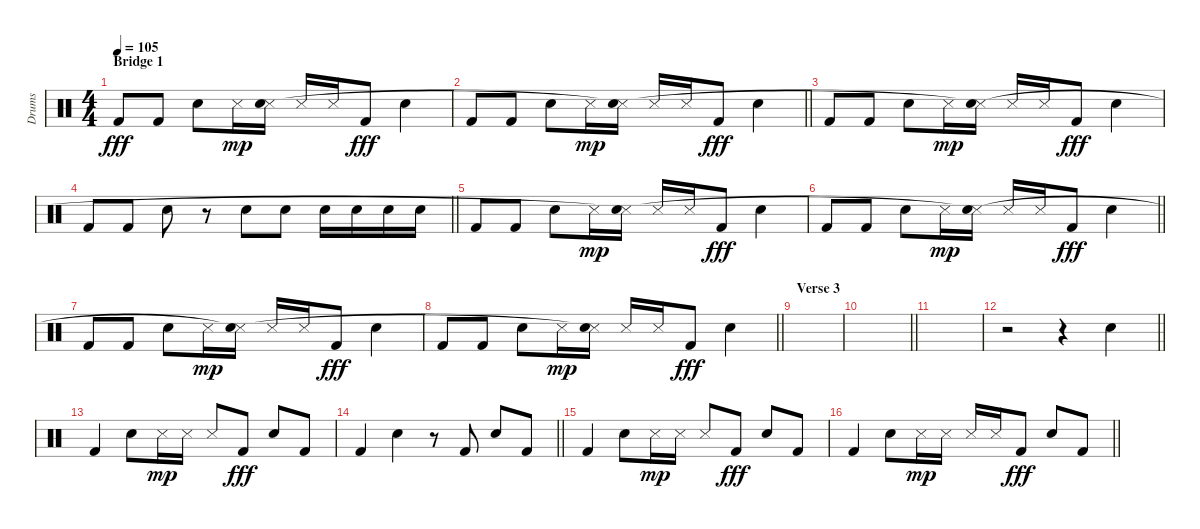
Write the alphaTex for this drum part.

\track ("Drums" "Drums") {instrument percussion}
\staff {score}
\articulation defaults
\ts (4 4)
\section ("" "Bridge 1")
\tempo 105
\clef neutral
\ks aminor "Kick (hit) 2".8{dy fff} "Kick (hit) 2".8 "Electric Snare (hit)".8 "Snare (side stick) 3".16{dy mp}
("Metronome (hit)" "Snare (hit)").16 "Snare (side stick) 3".16 "Metronome (hit)".16 "Kick (hit) 2".8{dy fff} "Electric Snare (hit)".4 |
\barLineRight lightlight "Kick (hit) 2".8 "Kick (hit) 2".8 "Electric Snare (hit)".8 "Snare (side stick) 3".16{dy mp}
("Metronome (hit)" "Snare (hit)"{t}).16 "Snare (side stick) 3".16 "Metronome (hit)".16 "Kick (hit) 2".8{dy fff} "Electric Snare (hit)".4 |
"Kick (hit) 2".8 "Kick (hit) 2".8 "Electric Snare (hit)".8 "Snare (side stick) 3".16{dy mp} ("Metronome (hit)" "Snare (hit)"{t}).16 "Snare (side stick) 3".16 "Metronome (hit)".16 "Kick (hit) 2".8{dy fff} "Electric Snare (hit)".4 |
\barLineRight lightlight "Kick (hit) 2".8 "Kick (hit) 2".8 "Electric Snare (hit)".8
r.8 "Electric Snare (hit)".8 "Electric Snare (hit)".8 "Electric Snare (hit)".16 "Electric Snare (hit)".16 "Electric Snare (hit)".16 "Electric Snare (hit)".16 |
"Kick (hit) 2".8 "Kick (hit) 2".8 "Electric Snare (hit)".8 "Snare (side stick) 3".16{dy mp} ("Metronome (hit)" "Snare (hit)"{t}).16 "Snare (side stick) 3".16 "Metronome (hit)".16 "Kick (hit) 2".8{dy fff} "Electric Snare (hit)".4 |
\barLineRight lightlight "Kick (hit) 2".8 "Kick (hit) 2".8 "Electric Snare (hit)".8 "Snare (side stick) 3".16{dy mp}
("Metronome (hit)" "Snare (hit)"{t}).16 "Snare (side stick) 3".16 "Metronome (hit)".16 "Kick (hit) 2".8{dy fff} "Electric Snare (hit)".4 |
"Kick (hit) 2".8 "Kick (hit) 2".8 "Electric Snare (hit)".8 "Snare (side stick) 3".16{dy mp} ("Metronome (hit)" "Snare (hit)"{t}).16 "Snare (side stick) 3".16 "Metronome (hit)".16 "Kick (hit) 2".8{dy fff} "Electric Snare (hit)".4 |
\barLineRight lightlight "Kick (hit) 2".8 "Kick (hit) 2".8 "Electric Snare (hit)".8 "Snare (side stick) 3".16{dy mp}
("Metronome (hit)" "Snare (hit)"{t}).16 "Snare (side stick) 3".16 "Metronome (hit)".16 "Kick (hit) 2".8{dy fff} "Electric Snare (hit)".4 |
\section ("" "Verse 3")
|
\barLineRight lightlight
|
|
\barLineRight lightlight
r.2 r.4 "Electric Snare (hit)".4 |
"Kick (hit) 2".4 "Electric Snare (hit)".8 "Snare (side stick) 3".16{dy mp} "Metronome (hit)".16 "Snare (side stick) 3".8 "Kick (hit) 2".8{dy fff} "Electric Snare (hit)".8 "Kick (hit) 2".8 |
\barLineRight lightlight "Kick (hit) 2".4 "Electric Snare (hit)".4
r.8 "Kick (hit) 2".8 "Electric Snare (hit)".8 "Kick (hit) 2".8 |
"Kick (hit) 2".4 "Electric Snare (hit)".8 "Snare (side stick) 3".16{dy mp} "Metronome (hit)".16 "Snare (side stick) 3".8 "Kick (hit) 2".8{dy fff} "Electric Snare (hit)".8 "Kick (hit) 2".8 |
\barLineRight lightlight "Kick (hit) 2".4 "Electric Snare (hit)".8 "Snare (side stick) 3".16{dy mp} "Metronome (hit)".16 "Snare (side stick) 3".16 "Metronome (hit)".16 "Kick (hit) 2".8{dy fff} "Electric Snare (hit)".8 "Kick (hit) 2".8
